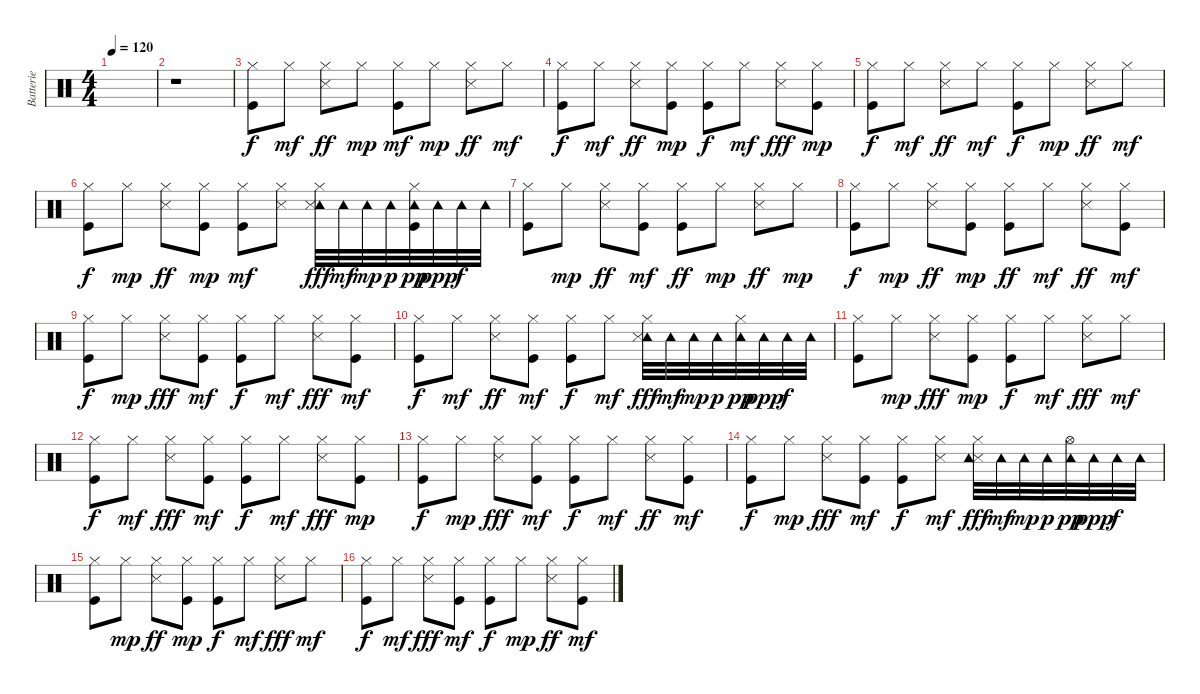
\track ("Batterie" "Batterie") {instrument percussion}
\staff {score}
\articulation defaults
\ts (4 4)
\tempo 120
\clef neutral
\ks c
|
r.1 |
("Kick (hit)" "Hi-Hat (closed)").8 "Hi-Hat (closed)".8{dy mf} ("Snare (side stick) 3" "Hi-Hat (closed)").8{dy ff} "Hi-Hat (closed)".8{dy mp} ("Kick (hit)" "Hi-Hat (closed)").8{dy mf} "Hi-Hat (closed)".8{dy mp} ("Snare (side stick) 3" "Hi-Hat (closed)").8{dy ff} "Hi-Hat (closed)".8{dy mf} |
("Kick (hit)" "Hi-Hat (closed)").8{dy f} "Hi-Hat (closed)".8{dy mf} ("Snare (side stick) 3" "Hi-Hat (closed)").8{dy ff} ("Kick (hit)" "Hi-Hat (closed)").8{dy mp} ("Kick (hit)" "Hi-Hat (closed)").8{dy f} "Hi-Hat (closed)".8{dy mf} ("Snare (side stick) 3" "Hi-Hat (closed)").8{dy fff} ("Kick (hit)" "Hi-Hat (closed)").8{dy mp} |
("Kick (hit)" "Hi-Hat (closed)").8{dy f} "Hi-Hat (closed)".8{dy mf} ("Snare (side stick) 3" "Hi-Hat (closed)").8{dy ff} "Hi-Hat (closed)".8{dy mf} ("Kick (hit)" "Hi-Hat (closed)").8{dy f} "Hi-Hat (closed)".8{dy mp} ("Snare (side stick) 3" "Hi-Hat (closed)").8{dy ff} "Hi-Hat (closed)".8{dy mf} |
("Kick (hit)" "Hi-Hat (closed)").8{dy f} "Hi-Hat (closed)".8{dy mp} ("Snare (side stick) 3" "Hi-Hat (closed)").8{dy ff} ("Kick (hit)" "Hi-Hat (closed)").8{dy mp} ("Kick (hit)" "Hi-Hat (closed)").8{dy mf} ("Snare (side stick) 3" "Hi-Hat (closed)").8 ("Tambourine (hit)" "Snare (side stick) 3" "Hi-Hat (closed)").32{dy fff} "Tambourine (hit)".32{dy mf} "Tambourine (hit)".32{dy mp} "Tambourine (hit)".32{dy p} ("Kick (hit)" "Hi-Hat (closed)" "Tambourine (hit)").32{dy pp} "Tambourine (hit)".32{dy ppp} "Tambourine (hit)".32{dy f} "Tambourine (hit)".32 |
("Kick (hit)" "Hi-Hat (closed)").8 "Hi-Hat (closed)".8{dy mp} ("Snare (side stick) 3" "Hi-Hat (closed)").8{dy ff} ("Kick (hit)" "Hi-Hat (closed)").8{dy mf} ("Kick (hit)" "Hi-Hat (closed)").8{dy ff} "Hi-Hat (closed)".8{dy mp} ("Snare (side stick) 3" "Hi-Hat (closed)").8{dy ff} "Hi-Hat (closed)".8{dy mp} |
("Kick (hit)" "Hi-Hat (closed)").8{dy f} "Hi-Hat (closed)".8{dy mp} ("Snare (side stick) 3" "Hi-Hat (closed)").8{dy ff} ("Kick (hit)" "Hi-Hat (closed)").8{dy mp} ("Kick (hit)" "Hi-Hat (closed)").8{dy ff} "Hi-Hat (closed)".8{dy mf} ("Snare (side stick) 3" "Hi-Hat (closed)").8{dy ff} ("Kick (hit)" "Hi-Hat (closed)").8{dy mf} |
("Kick (hit)" "Hi-Hat (closed)").8{dy f} "Hi-Hat (closed)".8{dy mp} ("Snare (side stick) 3" "Hi-Hat (closed)").8{dy fff} ("Kick (hit)" "Hi-Hat (closed)").8{dy mf} ("Kick (hit)" "Hi-Hat (closed)").8{dy f} "Hi-Hat (closed)".8{dy mf} ("Snare (side stick) 3" "Hi-Hat (closed)").8{dy fff} ("Kick (hit)" "Hi-Hat (closed)").8{dy mf} |
("Kick (hit)" "Hi-Hat (closed)").8{dy f} "Hi-Hat (closed)".8{dy mf} ("Snare (side stick) 3" "Hi-Hat (closed)").8{dy ff} ("Kick (hit)" "Hi-Hat (closed)").8{dy mf} ("Kick (hit)" "Hi-Hat (closed)").8{dy f} "Hi-Hat (closed)".8{dy mf} ("Tambourine (hit)" "Snare (side stick) 3" "Hi-Hat (closed)").32{dy fff} "Tambourine (hit)".32{dy mf} "Tambourine (hit)".32{dy mp} "Tambourine (hit)".32{dy p} ("Hi-Hat (closed)" "Tambourine (hit)").32{dy pp} "Tambourine (hit)".32{dy ppp} "Tambourine (hit)".32{dy f} "Tambourine (hit)".32 |
("Kick (hit)" "Hi-Hat (closed)").8 "Hi-Hat (closed)".8{dy mp} ("Snare (side stick) 3" "Hi-Hat (closed)").8{dy fff} ("Kick (hit)" "Hi-Hat (closed)").8{dy mp} ("Kick (hit)" "Hi-Hat (closed)").8{dy f} "Hi-Hat (closed)".8{dy mf} ("Snare (side stick) 3" "Hi-Hat (closed)").8{dy fff} "Hi-Hat (closed)".8{dy mf} |
("Kick (hit)" "Hi-Hat (closed)").8{dy f} "Hi-Hat (closed)".8{dy mf} ("Snare (side stick) 3" "Hi-Hat (closed)").8{dy fff} ("Kick (hit)" "Hi-Hat (closed)").8{dy mf} ("Kick (hit)" "Hi-Hat (closed)").8{dy f} "Hi-Hat (closed)".8{dy mf} ("Snare (side stick) 3" "Hi-Hat (closed)").8{dy fff} ("Kick (hit)" "Hi-Hat (closed)").8{dy mp} |
("Kick (hit)" "Hi-Hat (closed)").8{dy f} "Hi-Hat (closed)".8{dy mp} ("Snare (side stick) 3" "Hi-Hat (closed)").8{dy fff} ("Kick (hit)" "Hi-Hat (closed)").8{dy mf} ("Kick (hit)" "Hi-Hat (closed)").8{dy f} "Hi-Hat (closed)".8{dy mf} ("Snare (side stick) 3" "Hi-Hat (closed)").8{dy ff} ("Kick (hit)" "Hi-Hat (closed)").8{dy mf} |
("Kick (hit)" "Hi-Hat (closed)").8{dy f} "Hi-Hat (closed)".8{dy mp} ("Snare (side stick) 3" "Hi-Hat (closed)").8{dy fff} ("Kick (hit)" "Hi-Hat (closed)").8{dy mf} ("Kick (hit)" "Hi-Hat (closed)").8{dy f} ("Snare (side stick) 3" "Hi-Hat (closed)").8{dy mf} ("Snare (side stick) 3" "Tambourine (hit)" "Hi-Hat (closed)").32{dy fff} "Tambourine (hit)".32{dy mf} "Tambourine (hit)".32{dy mp} "Tambourine (hit)".32{dy p} ("Tambourine (hit)" "Hi-Hat (open)").32{dy pp} "Tambourine (hit)".32{dy ppp} "Tambourine (hit)".32{dy f} "Tambourine (hit)".32 |
("Kick (hit)" "Hi-Hat (closed)").8 "Hi-Hat (closed)".8{dy mp} ("Snare (side stick) 3" "Hi-Hat (closed)").8{dy ff} ("Kick (hit)" "Hi-Hat (closed)").8{dy mp} ("Kick (hit)" "Hi-Hat (closed)").8{dy f} "Hi-Hat (closed)".8{dy mf} ("Snare (side stick) 3" "Hi-Hat (closed)").8{dy fff} "Hi-Hat (closed)".8{dy mf} |
("Kick (hit)" "Hi-Hat (closed)").8{dy f} "Hi-Hat (closed)".8{dy mf} ("Snare (side stick) 3" "Hi-Hat (closed)").8{dy fff} ("Kick (hit)" "Hi-Hat (closed)").8{dy mf} ("Kick (hit)" "Hi-Hat (closed)").8{dy f} "Hi-Hat (closed)".8{dy mp} ("Snare (side stick) 3" "Hi-Hat (closed)").8{dy ff} ("Kick (hit)" "Hi-Hat (closed)").8{dy mf}
